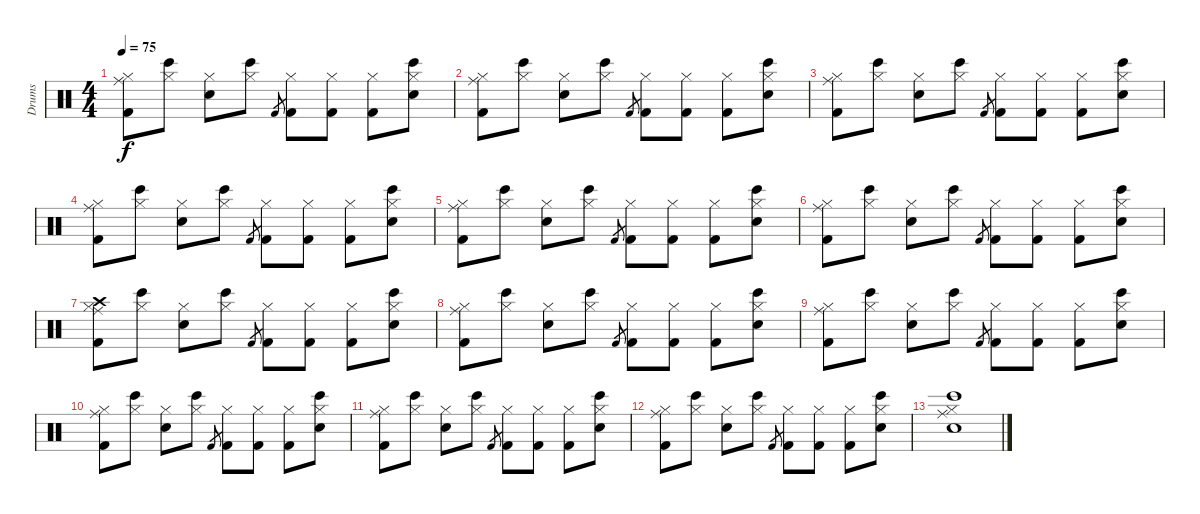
\track ("Drums" "Drums") {instrument percussion}
\staff {score}
\articulation defaults
\ts (4 4)
\tempo 75
\clef neutral
\ks c
("Ride (middle)" "Hi-Hat (closed)" "Kick (hit) 2").8{dy f} ("Bongo High (hit)" "Hi-Hat (closed)").8 ("Hi-Hat (closed)" "Electric Snare (hit)").8 ("Bongo High (hit)" "Hi-Hat (closed)").8 "Kick (hit) 2".8{gr} ("Hi-Hat (closed)" "Kick (hit) 2").8 ("Hi-Hat (closed)" "Kick (hit) 2").8 ("Hi-Hat (closed)" "Kick (hit) 2").8 ("Bongo High (hit)" "Hi-Hat (closed)" "Electric Snare (hit)").8 |
("Ride (middle)" "Hi-Hat (closed)" "Kick (hit) 2").8 ("Bongo High (hit)" "Hi-Hat (closed)").8 ("Hi-Hat (closed)" "Electric Snare (hit)").8 ("Bongo High (hit)" "Hi-Hat (closed)").8 "Kick (hit) 2".8{gr} ("Hi-Hat (closed)" "Kick (hit) 2").8 ("Hi-Hat (closed)" "Kick (hit) 2").8 ("Hi-Hat (closed)" "Kick (hit) 2").8 ("Bongo High (hit)" "Hi-Hat (closed)" "Electric Snare (hit)").8 |
("Ride (middle)" "Hi-Hat (closed)" "Kick (hit) 2").8 ("Bongo High (hit)" "Hi-Hat (closed)").8 ("Hi-Hat (closed)" "Electric Snare (hit)").8 ("Bongo High (hit)" "Hi-Hat (closed)").8 "Kick (hit) 2".8{gr} ("Hi-Hat (closed)" "Kick (hit) 2").8 ("Hi-Hat (closed)" "Kick (hit) 2").8 ("Hi-Hat (closed)" "Kick (hit) 2").8 ("Bongo High (hit)" "Hi-Hat (closed)" "Electric Snare (hit)").8 |
("Ride (middle)" "Hi-Hat (closed)" "Kick (hit) 2").8 ("Bongo High (hit)" "Hi-Hat (closed)").8 ("Hi-Hat (closed)" "Electric Snare (hit)").8 ("Bongo High (hit)" "Hi-Hat (closed)").8 "Kick (hit) 2".8{gr} ("Hi-Hat (closed)" "Kick (hit) 2").8 ("Hi-Hat (closed)" "Kick (hit) 2").8 ("Hi-Hat (closed)" "Kick (hit) 2").8 ("Bongo High (hit)" "Hi-Hat (closed)" "Electric Snare (hit)").8 |
("Ride (middle)" "Hi-Hat (closed)" "Kick (hit) 2").8 ("Bongo High (hit)" "Hi-Hat (closed)").8 ("Hi-Hat (closed)" "Electric Snare (hit)").8 ("Bongo High (hit)" "Hi-Hat (closed)").8 "Kick (hit) 2".8{gr} ("Hi-Hat (closed)" "Kick (hit) 2").8 ("Hi-Hat (closed)" "Kick (hit) 2").8 ("Hi-Hat (closed)" "Kick (hit) 2").8 ("Bongo High (hit)" "Hi-Hat (closed)" "Electric Snare (hit)").8 |
("Ride (middle)" "Hi-Hat (closed)" "Kick (hit) 2").8 ("Bongo High (hit)" "Hi-Hat (closed)").8 ("Hi-Hat (closed)" "Electric Snare (hit)").8 ("Bongo High (hit)" "Hi-Hat (closed)").8 "Kick (hit) 2".8{gr} ("Hi-Hat (closed)" "Kick (hit) 2").8 ("Hi-Hat (closed)" "Kick (hit) 2").8 ("Hi-Hat (closed)" "Kick (hit) 2").8 ("Bongo High (hit)" "Hi-Hat (closed)" "Electric Snare (hit)").8 |
("Crash high (hit)" "Ride (middle)" "Hi-Hat (closed)" "Kick (hit) 2").8 ("Bongo High (hit)" "Hi-Hat (closed)").8 ("Hi-Hat (closed)" "Electric Snare (hit)").8 ("Bongo High (hit)" "Hi-Hat (closed)").8 "Kick (hit) 2".8{gr} ("Hi-Hat (closed)" "Kick (hit) 2").8 ("Hi-Hat (closed)" "Kick (hit) 2").8 ("Hi-Hat (closed)" "Kick (hit) 2").8 ("Bongo High (hit)" "Hi-Hat (closed)" "Electric Snare (hit)").8 |
("Ride (middle)" "Hi-Hat (closed)" "Kick (hit) 2").8 ("Bongo High (hit)" "Hi-Hat (closed)").8 ("Hi-Hat (closed)" "Electric Snare (hit)").8 ("Bongo High (hit)" "Hi-Hat (closed)").8 "Kick (hit) 2".8{gr} ("Hi-Hat (closed)" "Kick (hit) 2").8 ("Hi-Hat (closed)" "Kick (hit) 2").8 ("Hi-Hat (closed)" "Kick (hit) 2").8 ("Bongo High (hit)" "Hi-Hat (closed)" "Electric Snare (hit)").8 |
("Ride (middle)" "Hi-Hat (closed)" "Kick (hit) 2").8 ("Bongo High (hit)" "Hi-Hat (closed)").8 ("Hi-Hat (closed)" "Electric Snare (hit)").8 ("Bongo High (hit)" "Hi-Hat (closed)").8 "Kick (hit) 2".8{gr} ("Hi-Hat (closed)" "Kick (hit) 2").8 ("Hi-Hat (closed)" "Kick (hit) 2").8 ("Hi-Hat (closed)" "Kick (hit) 2").8 ("Bongo High (hit)" "Hi-Hat (closed)" "Electric Snare (hit)").8 |
("Ride (middle)" "Hi-Hat (closed)" "Kick (hit) 2").8 ("Bongo High (hit)" "Hi-Hat (closed)").8 ("Hi-Hat (closed)" "Electric Snare (hit)").8 ("Bongo High (hit)" "Hi-Hat (closed)").8 "Kick (hit) 2".8{gr} ("Hi-Hat (closed)" "Kick (hit) 2").8 ("Hi-Hat (closed)" "Kick (hit) 2").8 ("Hi-Hat (closed)" "Kick (hit) 2").8 ("Bongo High (hit)" "Hi-Hat (closed)" "Electric Snare (hit)").8 |
("Ride (middle)" "Hi-Hat (closed)" "Kick (hit) 2").8 ("Bongo High (hit)" "Hi-Hat (closed)").8 ("Hi-Hat (closed)" "Electric Snare (hit)").8 ("Bongo High (hit)" "Hi-Hat (closed)").8 "Kick (hit) 2".8{gr} ("Hi-Hat (closed)" "Kick (hit) 2").8 ("Hi-Hat (closed)" "Kick (hit) 2").8 ("Hi-Hat (closed)" "Kick (hit) 2").8 ("Bongo High (hit)" "Hi-Hat (closed)" "Electric Snare (hit)").8 |
("Ride (middle)" "Hi-Hat (closed)" "Kick (hit) 2").8 ("Bongo High (hit)" "Hi-Hat (closed)").8 ("Hi-Hat (closed)" "Electric Snare (hit)").8 ("Bongo High (hit)" "Hi-Hat (closed)").8 "Kick (hit) 2".8{gr} ("Hi-Hat (closed)" "Kick (hit) 2").8 ("Hi-Hat (closed)" "Kick (hit) 2").8 ("Hi-Hat (closed)" "Kick (hit) 2").8 ("Bongo High (hit)" "Hi-Hat (closed)" "Electric Snare (hit)").8 |
("Ride (middle)" "Electric Snare (hit)" "Hi-Hat (closed)" "Bongo High (hit)").1
